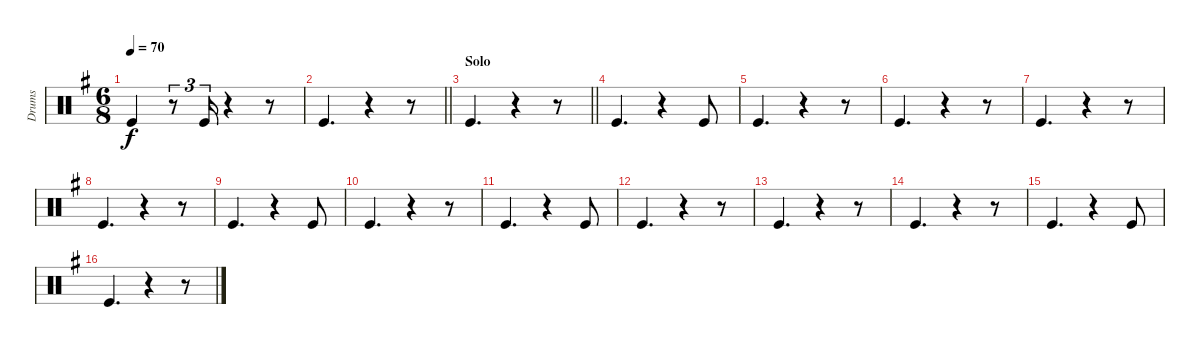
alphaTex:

\track ("Drums" "Drums") {instrument percussion}
\staff {score}
\articulation defaults
\ts (6 8)
\tempo 70
\clef neutral
\ks g "Kick (hit)".4{dy f}
r.8{tu (3 2)} "Kick (hit)".16{tu (3 2)} r.4 r.8 |
\barLineRight lightlight "Kick (hit)".4{d}
r.4 r.8 |
\section ("" "Solo")
\barLineRight lightlight "Kick (hit)".4{d}
r.4 r.8 |
\section ("" "")
"Kick (hit)".4{d} r.4 "Kick (hit)".8 |
"Kick (hit)".4{d} r.4 r.8 |
"Kick (hit)".4{d} r.4 r.8 |
"Kick (hit)".4{d} r.4 r.8 |
"Kick (hit)".4{d} r.4 r.8 |
"Kick (hit)".4{d} r.4 "Kick (hit)".8 |
"Kick (hit)".4{d} r.4 r.8 |
"Kick (hit)".4{d} r.4 "Kick (hit)".8 |
"Kick (hit)".4{d} r.4 r.8 |
"Kick (hit)".4{d} r.4 r.8 |
"Kick (hit)".4{d} r.4 r.8 |
"Kick (hit)".4{d} r.4 "Kick (hit)".8 |
"Kick (hit)".4{d} r.4 r.8
